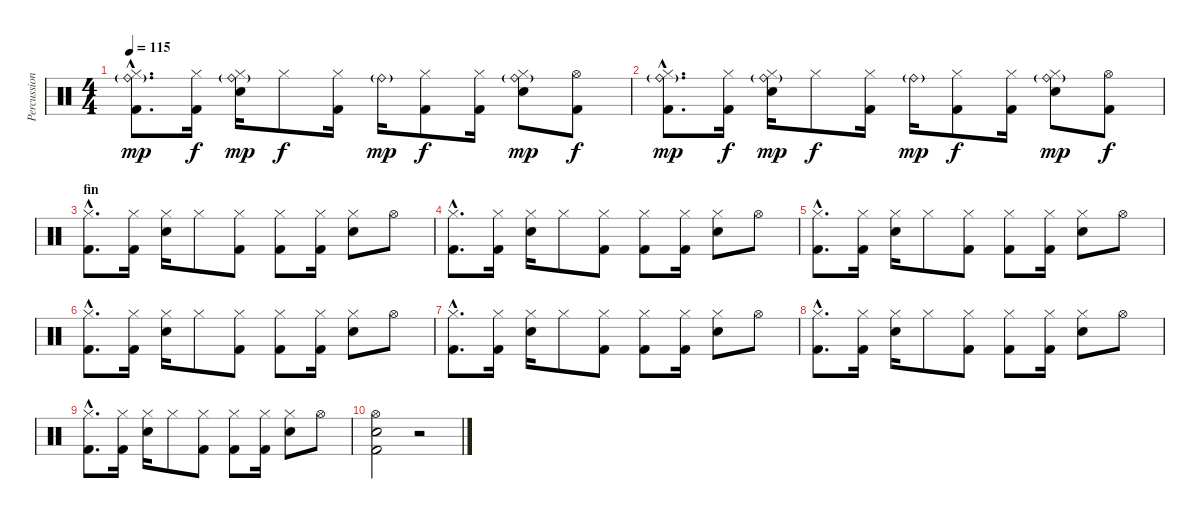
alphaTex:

\track ("Percussions" "Percussion") {instrument percussion}
\staff {score}
\articulation defaults
\ts (4 4)
\tempo 115
\clef neutral
\ks c
("Kick (hit) 2"{hac} "Hi-Hat (closed)"{hac} "Ride (bell)"{g hac}).8{d dy mp} ("Kick (hit) 2" "Hi-Hat (closed)").16{dy f} ("Hi-Hat (closed)" "Snare (hit) 2" "Ride (bell)"{g}).16{dy mp} "Hi-Hat (closed)".8{dy f} ("Kick (hit) 2" "Hi-Hat (closed)").16 "Ride (bell)"{g}.16{dy mp} ("Kick (hit) 2" "Hi-Hat (closed)").8{dy f} ("Kick (hit) 2" "Hi-Hat (closed)").16 ("Hi-Hat (closed)" "Snare (hit) 2" "Ride (bell)"{g}).8{dy mp} ("Kick (hit) 2" "Hi-Hat (open)").8{dy f} |
("Kick (hit) 2"{hac} "Hi-Hat (closed)"{hac} "Ride (bell)"{g hac}).8{d dy mp} ("Kick (hit) 2" "Hi-Hat (closed)").16{dy f} ("Hi-Hat (closed)" "Snare (hit) 2" "Ride (bell)"{g}).16{dy mp} "Hi-Hat (closed)".8{dy f} ("Kick (hit) 2" "Hi-Hat (closed)").16 "Ride (bell)"{g}.16{dy mp} ("Kick (hit) 2" "Hi-Hat (closed)").8{dy f} ("Kick (hit) 2" "Hi-Hat (closed)").16 ("Hi-Hat (closed)" "Snare (hit) 2" "Ride (bell)"{g}).8{dy mp} ("Kick (hit) 2" "Hi-Hat (open)").8{dy f} |
\section ("" "fin")
("Kick (hit) 2"{hac} "Hi-Hat (closed)"{hac}).8{d} ("Kick (hit) 2" "Hi-Hat (closed)").16 ("Hi-Hat (closed)" "Snare (hit) 2").16 "Hi-Hat (closed)".8 ("Kick (hit) 2" "Hi-Hat (closed)").8 ("Kick (hit) 2" "Hi-Hat (closed)").8 ("Kick (hit) 2" "Hi-Hat (closed)").16 ("Hi-Hat (closed)" "Snare (hit) 2").8 "Hi-Hat (open)".8 |
("Kick (hit) 2"{hac} "Hi-Hat (closed)"{hac}).8{d} ("Kick (hit) 2" "Hi-Hat (closed)").16 ("Hi-Hat (closed)" "Snare (hit) 2").16 "Hi-Hat (closed)".8 ("Kick (hit) 2" "Hi-Hat (closed)").8 ("Kick (hit) 2" "Hi-Hat (closed)").8 ("Kick (hit) 2" "Hi-Hat (closed)").16 ("Hi-Hat (closed)" "Snare (hit) 2").8 "Hi-Hat (open)".8 |
("Kick (hit) 2"{hac} "Hi-Hat (closed)"{hac}).8{d} ("Kick (hit) 2" "Hi-Hat (closed)").16 ("Hi-Hat (closed)" "Snare (hit) 2").16 "Hi-Hat (closed)".8 ("Kick (hit) 2" "Hi-Hat (closed)").8 ("Kick (hit) 2" "Hi-Hat (closed)").8 ("Kick (hit) 2" "Hi-Hat (closed)").16 ("Hi-Hat (closed)" "Snare (hit) 2").8 "Hi-Hat (open)".8 |
("Kick (hit) 2"{hac} "Hi-Hat (closed)"{hac}).8{d} ("Kick (hit) 2" "Hi-Hat (closed)").16 ("Hi-Hat (closed)" "Snare (hit) 2").16 "Hi-Hat (closed)".8 ("Kick (hit) 2" "Hi-Hat (closed)").8 ("Kick (hit) 2" "Hi-Hat (closed)").8 ("Kick (hit) 2" "Hi-Hat (closed)").16 ("Hi-Hat (closed)" "Snare (hit) 2").8 "Hi-Hat (open)".8 |
("Kick (hit) 2"{hac} "Hi-Hat (closed)"{hac}).8{d} ("Kick (hit) 2" "Hi-Hat (closed)").16 ("Hi-Hat (closed)" "Snare (hit) 2").16 "Hi-Hat (closed)".8 ("Kick (hit) 2" "Hi-Hat (closed)").8 ("Kick (hit) 2" "Hi-Hat (closed)").8 ("Kick (hit) 2" "Hi-Hat (closed)").16 ("Hi-Hat (closed)" "Snare (hit) 2").8 "Hi-Hat (open)".8 |
("Kick (hit) 2"{hac} "Hi-Hat (closed)"{hac}).8{d} ("Kick (hit) 2" "Hi-Hat (closed)").16 ("Hi-Hat (closed)" "Snare (hit) 2").16 "Hi-Hat (closed)".8 ("Kick (hit) 2" "Hi-Hat (closed)").8 ("Kick (hit) 2" "Hi-Hat (closed)").8 ("Kick (hit) 2" "Hi-Hat (closed)").16 ("Hi-Hat (closed)" "Snare (hit) 2").8 "Hi-Hat (open)".8 |
("Kick (hit) 2"{hac} "Hi-Hat (closed)"{hac}).8{d} ("Kick (hit) 2" "Hi-Hat (closed)").16 ("Hi-Hat (closed)" "Snare (hit) 2").16 "Hi-Hat (closed)".8 ("Kick (hit) 2" "Hi-Hat (closed)").8 ("Kick (hit) 2" "Hi-Hat (closed)").8 ("Kick (hit) 2" "Hi-Hat (closed)").16 ("Hi-Hat (closed)" "Snare (hit) 2").8 "Hi-Hat (open)".8 |
("Kick (hit) 2" "Snare (hit) 2" "Hi-Hat (open)").2 r.2
